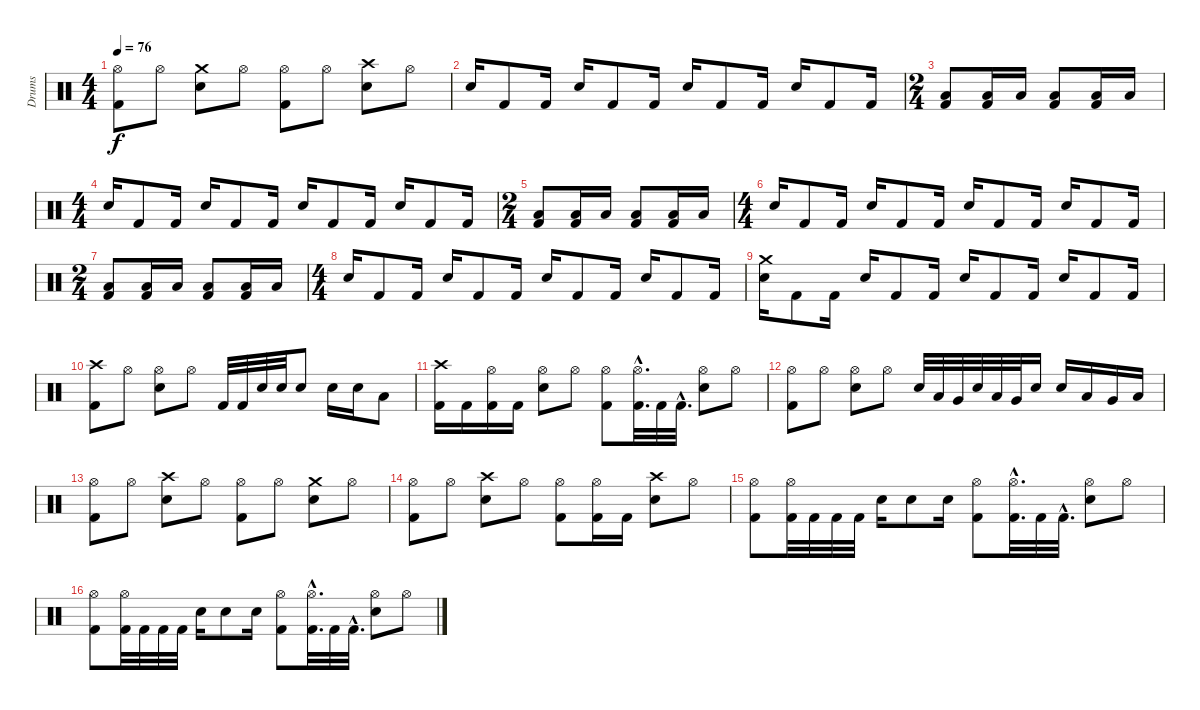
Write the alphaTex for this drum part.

\track ("Drums" "Drums") {instrument percussion}
\staff {score}
\articulation defaults
\ts (4 4)
\tempo 76
\clef neutral
\ks c
("Hi-Hat (open)" "Kick (hit) 2").8{dy f} "Hi-Hat (open)".8 ("Snare (hit) 2" "Crash medium (hit)").8 "Hi-Hat (open)".8 ("Kick (hit) 2" "Hi-Hat (open)").8 "Hi-Hat (open)".8 ("Crash high (hit)" "Snare (hit) 2").8 "Hi-Hat (open)".8 |
"Snare (hit) 2".16 "Kick (hit) 2".8 "Kick (hit) 2".16 "Snare (hit) 2".16 "Kick (hit) 2".8 "Kick (hit) 2".16 "Snare (hit) 2".16 "Kick (hit) 2".8 "Kick (hit) 2".16 "Snare (hit) 2".16 "Kick (hit) 2".8 "Kick (hit) 2".16 |
\ts (2 4)
("Low Floor Tom (hit)" "Kick (hit) 2").8 ("Kick (hit) 2" "Low Floor Tom (hit)").16 "Low Floor Tom (hit)".16 ("Low Floor Tom (hit)" "Kick (hit) 2").8 ("Kick (hit) 2" "Low Floor Tom (hit)").16 "Low Floor Tom (hit)".16 |
\ts (4 4)
"Snare (hit) 2".16 "Kick (hit) 2".8 "Kick (hit) 2".16 "Snare (hit) 2".16 "Kick (hit) 2".8 "Kick (hit) 2".16 "Snare (hit) 2".16 "Kick (hit) 2".8 "Kick (hit) 2".16 "Snare (hit) 2".16 "Kick (hit) 2".8 "Kick (hit) 2".16 |
\ts (2 4)
("Low Floor Tom (hit)" "Kick (hit) 2").8 ("Kick (hit) 2" "Low Floor Tom (hit)").16 "Low Floor Tom (hit)".16 ("Low Floor Tom (hit)" "Kick (hit) 2").8 ("Kick (hit) 2" "Low Floor Tom (hit)").16 "Low Floor Tom (hit)".16 |
\ts (4 4)
"Snare (hit) 2".16 "Kick (hit) 2".8 "Kick (hit) 2".16 "Snare (hit) 2".16 "Kick (hit) 2".8 "Kick (hit) 2".16 "Snare (hit) 2".16 "Kick (hit) 2".8 "Kick (hit) 2".16 "Snare (hit) 2".16 "Kick (hit) 2".8 "Kick (hit) 2".16 |
\ts (2 4)
("Kick (hit) 2" "Low Floor Tom (hit)").8 ("Kick (hit) 2" "Low Floor Tom (hit)").16 "Low Floor Tom (hit)".16 ("Kick (hit) 2" "Low Floor Tom (hit)").8 ("Kick (hit) 2" "Low Floor Tom (hit)").16 "Low Floor Tom (hit)".16 |
\ts (4 4)
"Snare (hit) 2".16 "Kick (hit) 2".8 "Kick (hit) 2".16 "Snare (hit) 2".16 "Kick (hit) 2".8 "Kick (hit) 2".16 "Snare (hit) 2".16 "Kick (hit) 2".8 "Kick (hit) 2".16 "Snare (hit) 2".16 "Kick (hit) 2".8 "Kick (hit) 2".16 |
("Crash medium (hit)" "Snare (hit) 2").16 "Kick (hit) 2".8 "Kick (hit) 2".16 "Snare (hit) 2".16 "Kick (hit) 2".8 "Kick (hit) 2".16 "Snare (hit) 2".16 "Kick (hit) 2".8 "Kick (hit) 2".16 "Snare (hit) 2".16 "Kick (hit) 2".8 "Kick (hit) 2".16 |
("Crash high (hit)" "Kick (hit) 2").8 "Hi-Hat (open)".8 ("Snare (hit) 2" "Hi-Hat (open)").8 "Hi-Hat (open)".8 "Kick (hit) 2".32 "Kick (hit) 2".32 "Snare (hit) 2".32 "Snare (hit) 2".32 "Snare (hit) 2".8 "Snare (hit) 2".16 "Snare (hit) 2".16 "Low Tom (hit)".8 |
("Crash high (hit)" "Kick (hit) 2").16 "Kick (hit) 2".16 ("Kick (hit) 2" "Hi-Hat (open)").16 "Kick (hit) 2".16 ("Snare (hit) 2" "Hi-Hat (open)").8 "Hi-Hat (open)".8 ("Kick (hit) 2" "Hi-Hat (open)").8 ("Hi-Hat (open)"{hac} "Kick (hit) 2"{hac}).32{d} "Kick (hit) 2".32 "Kick (hit) 2"{hac}.32{d} ("Snare (hit) 2" "Hi-Hat (open)").8 "Hi-Hat (open)".8 |
("Hi-Hat (open)" "Kick (hit) 2").8 "Hi-Hat (open)".8 ("Snare (hit) 2" "Hi-Hat (open)").8 "Hi-Hat (open)".8 "Snare (hit) 2".32 "Low Tom (hit)".32 "Very Low Tom (hit)".32 "Snare (hit) 2".32 "Low Tom (hit)".32 "Very Low Tom (hit)".32 "Snare (hit) 2".16 "Snare (hit) 2".16 "Low Tom (hit)".16 "Very Low Tom (hit)".16 "Low Floor Tom (hit)".16 |
("Kick (hit) 2" "Hi-Hat (open)").8 "Hi-Hat (open)".8 ("Crash high (hit)" "Snare (hit) 2").8 "Hi-Hat (open)".8 ("Kick (hit) 2" "Hi-Hat (open)").8 "Hi-Hat (open)".8 ("Crash medium (hit)" "Snare (hit) 2").8 "Hi-Hat (open)".8 |
("Kick (hit) 2" "Hi-Hat (open)").8 "Hi-Hat (open)".8 ("Snare (hit) 2" "Crash high (hit)").8 "Hi-Hat (open)".8 ("Kick (hit) 2" "Hi-Hat (open)").8 ("Kick (hit) 2" "Hi-Hat (open)").16 "Kick (hit) 2".16 ("Crash high (hit)" "Snare (hit) 2").8 "Hi-Hat (open)".8 |
("Kick (hit) 2" "Hi-Hat (open)").8 ("Hi-Hat (open)" "Kick (hit) 2").32 "Kick (hit) 2".32 "Kick (hit) 2".32 "Kick (hit) 2".32 "Snare (hit) 2".16 "Snare (hit) 2".8 "Snare (hit) 2".16 ("Hi-Hat (open)" "Kick (hit) 2").8 ("Kick (hit) 2"{hac} "Hi-Hat (open)"{hac}).32{d} "Kick (hit) 2".32 "Kick (hit) 2"{hac}.32{d} ("Snare (hit) 2" "Hi-Hat (open)").8 "Hi-Hat (open)".8 |
("Kick (hit) 2" "Hi-Hat (open)").8 ("Hi-Hat (open)" "Kick (hit) 2").32 "Kick (hit) 2".32 "Kick (hit) 2".32 "Kick (hit) 2".32 "Snare (hit) 2".16 "Snare (hit) 2".8 "Snare (hit) 2".16 ("Hi-Hat (open)" "Kick (hit) 2").8 ("Kick (hit) 2"{hac} "Hi-Hat (open)"{hac}).32{d} "Kick (hit) 2".32 "Kick (hit) 2"{hac}.32{d} ("Snare (hit) 2" "Hi-Hat (open)").8 "Hi-Hat (open)".8
